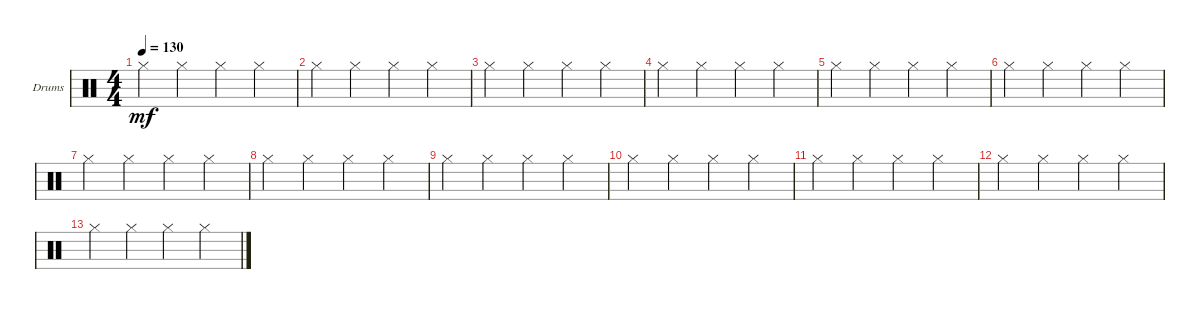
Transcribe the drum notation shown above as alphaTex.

\defaultSystemsLayout 4
\bracketExtendMode nobrackets
\firstSystemTrackNameOrientation horizontal
\otherSystemsTrackNameOrientation horizontal
\track ("Drumkit" "Drums") {instrument percussion}
\staff {score}
\articulation defaults
\ts (4 4)
\tempo 130
\clef neutral
\ks c "Hi-Hat (closed)".4{dy mf} "Hi-Hat (closed)".4 "Hi-Hat (closed)".4 "Hi-Hat (closed)".4
|
"Hi-Hat (closed)".4 "Hi-Hat (closed)".4 "Hi-Hat (closed)".4 "Hi-Hat (closed)".4 |
"Hi-Hat (closed)".4 "Hi-Hat (closed)".4 "Hi-Hat (closed)".4 "Hi-Hat (closed)".4 |
"Hi-Hat (closed)".4 "Hi-Hat (closed)".4 "Hi-Hat (closed)".4 "Hi-Hat (closed)".4 |
"Hi-Hat (closed)".4 "Hi-Hat (closed)".4 "Hi-Hat (closed)".4 "Hi-Hat (closed)".4 |
"Hi-Hat (closed)".4 "Hi-Hat (closed)".4 "Hi-Hat (closed)".4 "Hi-Hat (closed)".4 |
"Hi-Hat (closed)".4 "Hi-Hat (closed)".4 "Hi-Hat (closed)".4 "Hi-Hat (closed)".4 |
"Hi-Hat (closed)".4 "Hi-Hat (closed)".4 "Hi-Hat (closed)".4 "Hi-Hat (closed)".4 |
"Hi-Hat (closed)".4 "Hi-Hat (closed)".4 "Hi-Hat (closed)".4 "Hi-Hat (closed)".4 |
"Hi-Hat (closed)".4 "Hi-Hat (closed)".4 "Hi-Hat (closed)".4 "Hi-Hat (closed)".4 |
"Hi-Hat (closed)".4 "Hi-Hat (closed)".4 "Hi-Hat (closed)".4 "Hi-Hat (closed)".4 |
"Hi-Hat (closed)".4 "Hi-Hat (closed)".4 "Hi-Hat (closed)".4 "Hi-Hat (closed)".4 |
"Hi-Hat (closed)".4 "Hi-Hat (closed)".4 "Hi-Hat (closed)".4 "Hi-Hat (closed)".4
